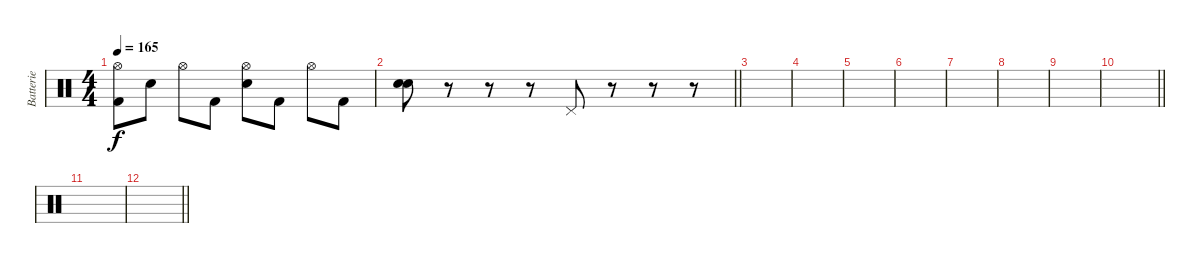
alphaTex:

\track ("Batterie" "Batterie") {instrument percussion}
\staff {score}
\articulation defaults
\ts (4 4)
\tempo 165
\clef neutral
\ks c
("Hi-Hat (open)" "Kick (hit) 2").8{dy f} "Electric Snare (hit)".8 "Hi-Hat (open)".8 "Kick (hit) 2".8 ("Hi-Hat (open)" "Electric Snare (hit)").8 "Kick (hit) 2".8 "Hi-Hat (open)".8 "Kick (hit) 2".8 |
\barLineRight lightlight
("Electric Snare (hit)" "Electric Snare (hit)").8{bu 120} r.8 r.8 r.8 "Pedal Hi-Hat (hit)".8 r.8 r.8 r.8 |
|
|
|
|
|
|
|
\barLineRight lightlight
|
|
\barLineRight lightlight
